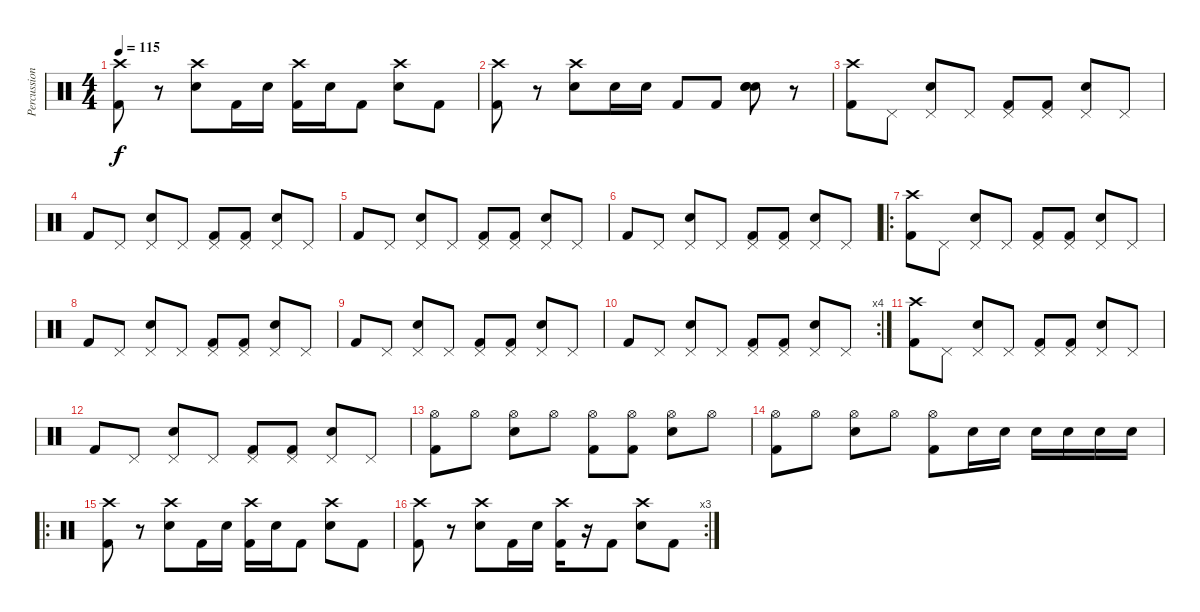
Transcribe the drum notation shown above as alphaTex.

\track ("Percussions" "Percussion") {instrument percussion}
\staff {score}
\articulation defaults
\ts (4 4)
\tempo 115
\clef neutral
\ks c
("Crash high (hit)" "Kick (hit) 2").8{dy f} r.8 ("Crash high (hit)" "Snare (hit) 2").8 "Kick (hit) 2".16 "Snare (hit) 2".16 ("Crash high (hit)" "Kick (hit) 2").16 "Snare (hit) 2".16 "Kick (hit) 2".8 ("Crash high (hit)" "Snare (hit) 2").8 "Kick (hit) 2".8 |
("Crash high (hit)" "Kick (hit) 2").8 r.8 ("Crash high (hit)" "Snare (hit) 2").8 "Snare (hit) 2".16 "Snare (hit) 2".16 "Kick (hit) 2".8 "Kick (hit) 2".8 ("Snare (hit) 2" "Snare (hit) 2" "Snare (hit) 2").8 r.8 |
("Crash high (hit)" "Kick (hit) 2").8 "Pedal Hi-Hat (hit)".8 ("Snare (hit) 2" "Pedal Hi-Hat (hit)").8 "Pedal Hi-Hat (hit)".8 ("Pedal Hi-Hat (hit)" "Kick (hit) 2").8 ("Pedal Hi-Hat (hit)" "Kick (hit) 2").8 ("Pedal Hi-Hat (hit)" "Snare (hit) 2").8 "Pedal Hi-Hat (hit)".8 |
"Kick (hit) 2".8 "Pedal Hi-Hat (hit)".8 ("Snare (hit) 2" "Pedal Hi-Hat (hit)").8 "Pedal Hi-Hat (hit)".8 ("Pedal Hi-Hat (hit)" "Kick (hit) 2").8 ("Pedal Hi-Hat (hit)" "Kick (hit) 2").8 ("Pedal Hi-Hat (hit)" "Snare (hit) 2").8 "Pedal Hi-Hat (hit)".8 |
"Kick (hit) 2".8 "Pedal Hi-Hat (hit)".8 ("Snare (hit) 2" "Pedal Hi-Hat (hit)").8 "Pedal Hi-Hat (hit)".8 ("Pedal Hi-Hat (hit)" "Kick (hit) 2").8 ("Pedal Hi-Hat (hit)" "Kick (hit) 2").8 ("Pedal Hi-Hat (hit)" "Snare (hit) 2").8 "Pedal Hi-Hat (hit)".8 |
"Kick (hit) 2".8 "Pedal Hi-Hat (hit)".8 ("Snare (hit) 2" "Pedal Hi-Hat (hit)").8 "Pedal Hi-Hat (hit)".8 ("Pedal Hi-Hat (hit)" "Kick (hit) 2").8 ("Pedal Hi-Hat (hit)" "Kick (hit) 2").8 ("Pedal Hi-Hat (hit)" "Snare (hit) 2").8 "Pedal Hi-Hat (hit)".8 |
\ro
("Crash high (hit)" "Kick (hit) 2").8 "Pedal Hi-Hat (hit)".8 ("Snare (hit) 2" "Pedal Hi-Hat (hit)").8 "Pedal Hi-Hat (hit)".8 ("Pedal Hi-Hat (hit)" "Kick (hit) 2").8 ("Pedal Hi-Hat (hit)" "Kick (hit) 2").8 ("Pedal Hi-Hat (hit)" "Snare (hit) 2").8 "Pedal Hi-Hat (hit)".8 |
"Kick (hit) 2".8 "Pedal Hi-Hat (hit)".8 ("Snare (hit) 2" "Pedal Hi-Hat (hit)").8 "Pedal Hi-Hat (hit)".8 ("Pedal Hi-Hat (hit)" "Kick (hit) 2").8 ("Pedal Hi-Hat (hit)" "Kick (hit) 2").8 ("Pedal Hi-Hat (hit)" "Snare (hit) 2").8 "Pedal Hi-Hat (hit)".8 |
"Kick (hit) 2".8 "Pedal Hi-Hat (hit)".8 ("Snare (hit) 2" "Pedal Hi-Hat (hit)").8 "Pedal Hi-Hat (hit)".8 ("Pedal Hi-Hat (hit)" "Kick (hit) 2").8 ("Pedal Hi-Hat (hit)" "Kick (hit) 2").8 ("Pedal Hi-Hat (hit)" "Snare (hit) 2").8 "Pedal Hi-Hat (hit)".8 |
\rc 4 "Kick (hit) 2".8 "Pedal Hi-Hat (hit)".8
("Snare (hit) 2" "Pedal Hi-Hat (hit)").8 "Pedal Hi-Hat (hit)".8 ("Pedal Hi-Hat (hit)" "Kick (hit) 2").8 ("Pedal Hi-Hat (hit)" "Kick (hit) 2").8 ("Pedal Hi-Hat (hit)" "Snare (hit) 2").8 "Pedal Hi-Hat (hit)".8 |
("Crash high (hit)" "Kick (hit) 2").8 "Pedal Hi-Hat (hit)".8 ("Snare (hit) 2" "Pedal Hi-Hat (hit)").8 "Pedal Hi-Hat (hit)".8 ("Pedal Hi-Hat (hit)" "Kick (hit) 2").8 ("Pedal Hi-Hat (hit)" "Kick (hit) 2").8 ("Pedal Hi-Hat (hit)" "Snare (hit) 2").8 "Pedal Hi-Hat (hit)".8 |
"Kick (hit) 2".8 "Pedal Hi-Hat (hit)".8 ("Snare (hit) 2" "Pedal Hi-Hat (hit)").8 "Pedal Hi-Hat (hit)".8 ("Pedal Hi-Hat (hit)" "Kick (hit) 2").8 ("Pedal Hi-Hat (hit)" "Kick (hit) 2").8 ("Pedal Hi-Hat (hit)" "Snare (hit) 2").8 "Pedal Hi-Hat (hit)".8 |
("Hi-Hat (open)" "Kick (hit) 2").8 "Hi-Hat (open)".8 ("Snare (hit) 2" "Hi-Hat (open)").8 "Hi-Hat (open)".8 ("Hi-Hat (open)" "Kick (hit) 2").8 ("Hi-Hat (open)" "Kick (hit) 2").8 ("Hi-Hat (open)" "Snare (hit) 2").8 "Hi-Hat (open)".8 |
("Hi-Hat (open)" "Kick (hit) 2").8 "Hi-Hat (open)".8 ("Snare (hit) 2" "Hi-Hat (open)").8 "Hi-Hat (open)".8 ("Hi-Hat (open)" "Kick (hit) 2").8 "Snare (hit) 2".16 "Snare (hit) 2".16 "Snare (hit) 2".16 "Snare (hit) 2".16 "Snare (hit) 2".16 "Snare (hit) 2".16 |
\ro
("Crash high (hit)" "Kick (hit) 2").8 r.8 ("Crash high (hit)" "Snare (hit) 2").8 "Kick (hit) 2".16 "Snare (hit) 2".16 ("Crash high (hit)" "Kick (hit) 2").16 "Snare (hit) 2".16 "Kick (hit) 2".8 ("Crash high (hit)" "Snare (hit) 2").8 "Kick (hit) 2".8 |
\rc 3
("Crash high (hit)" "Kick (hit) 2").8 r.8 ("Crash high (hit)" "Snare (hit) 2").8 "Kick (hit) 2".16 "Snare (hit) 2".16 ("Crash high (hit)" "Kick (hit) 2").16 r.16 "Kick (hit) 2".8 ("Crash high (hit)" "Snare (hit) 2").8 "Kick (hit) 2".8
